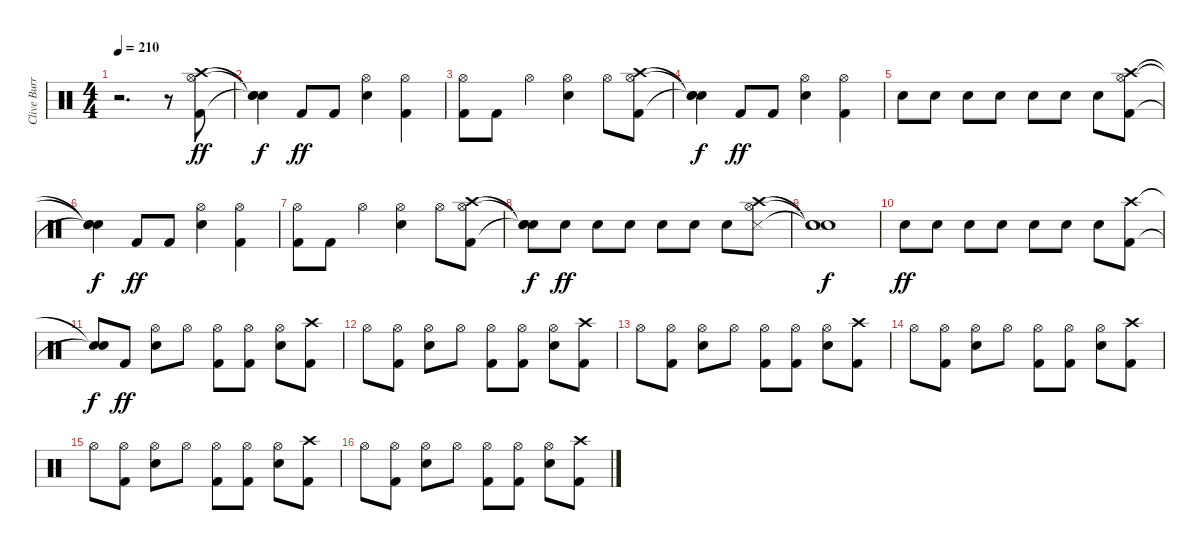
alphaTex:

\track ("Clive Burr" "Clive Burr") {instrument percussion}
\staff {score}
\articulation defaults
\ts (4 4)
\tempo 210
\clef neutral
\ks c
r.2{d dy ff} r.8 ("Kick (hit) 2" "Hi-Hat (open)" "Crash high (hit)").8 |
("Snare (hit)"{t} "Snare (hit)"{t} "Snare (hit)"{t}).4{dy f} "Kick (hit) 2".8{dy ff} "Kick (hit) 2".8 ("Snare (hit) 2" "Hi-Hat (open)").4 ("Kick (hit) 2" "Hi-Hat (open)").4 |
("Kick (hit) 2" "Hi-Hat (open)").8 "Kick (hit) 2".8 "Hi-Hat (open)".4 ("Snare (hit) 2" "Hi-Hat (open)").4 "Hi-Hat (open)".8 ("Kick (hit) 2" "Hi-Hat (open)" "Crash high (hit)").8 |
("Snare (hit)"{t} "Snare (hit)"{t} "Snare (hit)"{t}).4{dy f} "Kick (hit) 2".8{dy ff} "Kick (hit) 2".8 ("Snare (hit) 2" "Hi-Hat (open)").4 ("Kick (hit) 2" "Hi-Hat (open)").4 |
"Snare (hit) 2".8 "Snare (hit) 2".8 "Snare (hit) 2".8 "Snare (hit) 2".8 "Snare (hit) 2".8 "Snare (hit) 2".8 "Snare (hit) 2".8 ("Kick (hit) 2" "Hi-Hat (open)" "Crash high (hit)").8 |
("Snare (hit)"{t} "Snare (hit)"{t} "Snare (hit)"{t}).4{dy f} "Kick (hit) 2".8{dy ff} "Kick (hit) 2".8 ("Snare (hit) 2" "Hi-Hat (open)").4 ("Kick (hit) 2" "Hi-Hat (open)").4 |
("Kick (hit) 2" "Hi-Hat (open)").8 "Kick (hit) 2".8 "Hi-Hat (open)".4 ("Snare (hit) 2" "Hi-Hat (open)").4 "Hi-Hat (open)".8 ("Kick (hit) 2" "Hi-Hat (open)" "Crash high (hit)").8 |
("Snare (hit)"{t} "Snare (hit)"{t} "Snare (hit)"{t}).8{dy f} "Snare (hit) 2".8{dy ff} "Snare (hit) 2".8 "Snare (hit) 2".8 "Snare (hit) 2".8 "Snare (hit) 2".8 "Snare (hit) 2".8 ("Snare (side stick) 3" "Hi-Hat (open)" "Crash high (hit)").8 |
("Snare (hit)"{t} "Snare (hit)"{t} "Snare (hit)"{t}).1{dy f} |
"Snare (hit) 2".8{dy ff} "Snare (hit) 2".8 "Snare (hit) 2".8 "Snare (hit) 2".8 "Snare (hit) 2".8 "Snare (hit) 2".8 "Snare (hit) 2".8 ("Kick (hit) 2" "Crash high (hit)").8 |
("Snare (hit)"{t} "Snare (hit)"{t}).8{dy f} "Kick (hit) 2".8{dy ff} ("Snare (hit) 2" "Hi-Hat (open)").8 "Hi-Hat (open)".8 ("Kick (hit) 2" "Hi-Hat (open)").8 ("Kick (hit) 2" "Hi-Hat (open)").8 ("Snare (hit) 2" "Hi-Hat (open)").8 ("Kick (hit) 2" "Crash high (hit)").8 |
"Hi-Hat (open)".8 ("Kick (hit) 2" "Hi-Hat (open)").8 ("Snare (hit) 2" "Hi-Hat (open)").8 "Hi-Hat (open)".8 ("Kick (hit) 2" "Hi-Hat (open)").8 ("Kick (hit) 2" "Hi-Hat (open)").8 ("Snare (hit) 2" "Hi-Hat (open)").8 ("Kick (hit) 2" "Crash high (hit)").8 |
"Hi-Hat (open)".8 ("Kick (hit) 2" "Hi-Hat (open)").8 ("Snare (hit) 2" "Hi-Hat (open)").8 "Hi-Hat (open)".8 ("Kick (hit) 2" "Hi-Hat (open)").8 ("Kick (hit) 2" "Hi-Hat (open)").8 ("Snare (hit) 2" "Hi-Hat (open)").8 ("Kick (hit) 2" "Crash high (hit)").8 |
"Hi-Hat (open)".8 ("Kick (hit) 2" "Hi-Hat (open)").8 ("Snare (hit) 2" "Hi-Hat (open)").8 "Hi-Hat (open)".8 ("Kick (hit) 2" "Hi-Hat (open)").8 ("Kick (hit) 2" "Hi-Hat (open)").8 ("Snare (hit) 2" "Hi-Hat (open)").8 ("Kick (hit) 2" "Crash high (hit)").8 |
"Hi-Hat (open)".8 ("Kick (hit) 2" "Hi-Hat (open)").8 ("Snare (hit) 2" "Hi-Hat (open)").8 "Hi-Hat (open)".8 ("Kick (hit) 2" "Hi-Hat (open)").8 ("Kick (hit) 2" "Hi-Hat (open)").8 ("Snare (hit) 2" "Hi-Hat (open)").8 ("Kick (hit) 2" "Crash high (hit)").8 |
"Hi-Hat (open)".8 ("Kick (hit) 2" "Hi-Hat (open)").8 ("Snare (hit) 2" "Hi-Hat (open)").8 "Hi-Hat (open)".8 ("Kick (hit) 2" "Hi-Hat (open)").8 ("Kick (hit) 2" "Hi-Hat (open)").8 ("Snare (hit) 2" "Hi-Hat (open)").8 ("Kick (hit) 2" "Crash high (hit)").8
